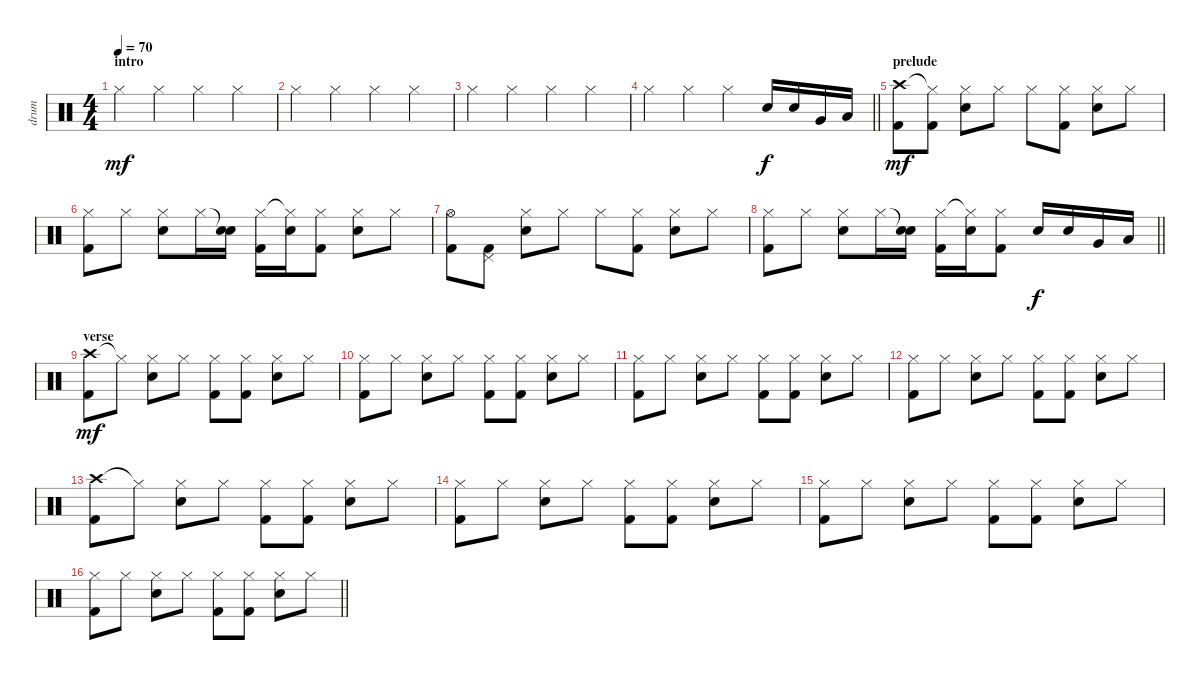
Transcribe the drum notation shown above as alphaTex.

\track ("drum" "drum") {instrument percussion}
\staff
\articulation defaults
\ts (4 4)
\section ("" "intro")
\tempo 70
\clef neutral
\ks c "Hi-Hat (closed)".4{dy mf} "Hi-Hat (closed)".4 "Hi-Hat (closed)".4 "Hi-Hat (closed)".4
|
"Hi-Hat (closed)".4 "Hi-Hat (closed)".4 "Hi-Hat (closed)".4 "Hi-Hat (closed)".4 |
"Hi-Hat (closed)".4 "Hi-Hat (closed)".4 "Hi-Hat (closed)".4 "Hi-Hat (closed)".4 |
\barLineRight lightlight "Hi-Hat (closed)".4 "Hi-Hat (closed)".4 "Hi-Hat (closed)".4 "Electric Snare (hit)".16{dy f} "Electric Snare (hit)".16 "Very Low Tom (hit)".16 "Low Floor Tom (hit)".16
|
\section ("" "prelude")
("Crash high (hit)" "Kick (hit) 2").8{dy mf} ("Hi-Hat (closed)"{t} "Kick (hit) 2").8 ("Hi-Hat (closed)" "Electric Snare (hit)").8 "Hi-Hat (closed)".8 "Hi-Hat (closed)".8 ("Hi-Hat (closed)" "Kick (hit) 2").8 ("Hi-Hat (closed)" "Electric Snare (hit)").8 "Hi-Hat (closed)".8 |
("Hi-Hat (closed)" "Kick (hit) 2").8 "Hi-Hat (closed)".8 ("Hi-Hat (closed)" "Electric Snare (hit)").8 "Hi-Hat (closed)".16 ("Snare (hit)"{t} "Electric Snare (hit)").16 ("Hi-Hat (closed)" "Kick (hit) 2").16 ("Hi-Hat (closed)"{t} "Electric Snare (hit)").16 ("Hi-Hat (closed)" "Kick (hit) 2").8 ("Hi-Hat (closed)" "Electric Snare (hit)").8 "Hi-Hat (closed)".8 |
("Hi-Hat (open)" "Kick (hit) 2").8 ("Pedal Hi-Hat (hit)" "Kick (hit) 2").8 ("Hi-Hat (closed)" "Electric Snare (hit)").8 "Hi-Hat (closed)".8 "Hi-Hat (closed)".8 ("Hi-Hat (closed)" "Kick (hit) 2").8 ("Hi-Hat (closed)" "Electric Snare (hit)").8 "Hi-Hat (closed)".8 |
\barLineRight lightlight
("Hi-Hat (closed)" "Kick (hit) 2").8 "Hi-Hat (closed)".8 ("Hi-Hat (closed)" "Electric Snare (hit)").8 "Hi-Hat (closed)".16 ("Snare (hit)"{t} "Electric Snare (hit)").16 ("Hi-Hat (closed)" "Kick (hit) 2").16 ("Hi-Hat (closed)"{t} "Electric Snare (hit)").16 ("Hi-Hat (closed)" "Kick (hit) 2").8 "Electric Snare (hit)".16{dy f} "Electric Snare (hit)".16 "Very Low Tom (hit)".16 "Low Floor Tom (hit)".16 |
\section ("" "verse")
("Crash high (hit)" "Kick (hit) 2").8{dy mf} "Hi-Hat (closed)"{t}.8 ("Hi-Hat (closed)" "Electric Snare (hit)").8 "Hi-Hat (closed)".8 ("Hi-Hat (closed)" "Kick (hit) 2").8 ("Hi-Hat (closed)" "Kick (hit) 2").8 ("Hi-Hat (closed)" "Electric Snare (hit)").8 "Hi-Hat (closed)".8 |
("Hi-Hat (closed)" "Kick (hit) 2").8 "Hi-Hat (closed)".8 ("Hi-Hat (closed)" "Electric Snare (hit)").8 "Hi-Hat (closed)".8 ("Hi-Hat (closed)" "Kick (hit) 2").8 ("Hi-Hat (closed)" "Kick (hit) 2").8 ("Hi-Hat (closed)" "Electric Snare (hit)").8 "Hi-Hat (closed)".8 |
("Hi-Hat (closed)" "Kick (hit) 2").8 "Hi-Hat (closed)".8 ("Hi-Hat (closed)" "Electric Snare (hit)").8 "Hi-Hat (closed)".8 ("Hi-Hat (closed)" "Kick (hit) 2").8 ("Hi-Hat (closed)" "Kick (hit) 2").8 ("Hi-Hat (closed)" "Electric Snare (hit)").8 "Hi-Hat (closed)".8 |
("Hi-Hat (closed)" "Kick (hit) 2").8 "Hi-Hat (closed)".8 ("Hi-Hat (closed)" "Electric Snare (hit)").8 "Hi-Hat (closed)".8 ("Hi-Hat (closed)" "Kick (hit) 2").8 ("Hi-Hat (closed)" "Kick (hit) 2").8 ("Hi-Hat (closed)" "Electric Snare (hit)").8 "Hi-Hat (closed)".8 |
("Crash high (hit)" "Kick (hit) 2").8 "Hi-Hat (closed)"{t}.8 ("Hi-Hat (closed)" "Electric Snare (hit)").8 "Hi-Hat (closed)".8 ("Hi-Hat (closed)" "Kick (hit) 2").8 ("Hi-Hat (closed)" "Kick (hit) 2").8 ("Hi-Hat (closed)" "Electric Snare (hit)").8 "Hi-Hat (closed)".8 |
("Hi-Hat (closed)" "Kick (hit) 2").8 "Hi-Hat (closed)".8 ("Hi-Hat (closed)" "Electric Snare (hit)").8 "Hi-Hat (closed)".8 ("Hi-Hat (closed)" "Kick (hit) 2").8 ("Hi-Hat (closed)" "Kick (hit) 2").8 ("Hi-Hat (closed)" "Electric Snare (hit)").8 "Hi-Hat (closed)".8 |
("Hi-Hat (closed)" "Kick (hit) 2").8 "Hi-Hat (closed)".8 ("Hi-Hat (closed)" "Electric Snare (hit)").8 "Hi-Hat (closed)".8 ("Hi-Hat (closed)" "Kick (hit) 2").8 ("Hi-Hat (closed)" "Kick (hit) 2").8 ("Hi-Hat (closed)" "Electric Snare (hit)").8 "Hi-Hat (closed)".8 |
\barLineRight lightlight
("Hi-Hat (closed)" "Kick (hit) 2").8 "Hi-Hat (closed)".8 ("Hi-Hat (closed)" "Electric Snare (hit)").8 "Hi-Hat (closed)".8 ("Hi-Hat (closed)" "Kick (hit) 2").8 ("Hi-Hat (closed)" "Kick (hit) 2").8 ("Hi-Hat (closed)" "Electric Snare (hit)").8 "Hi-Hat (closed)".8
